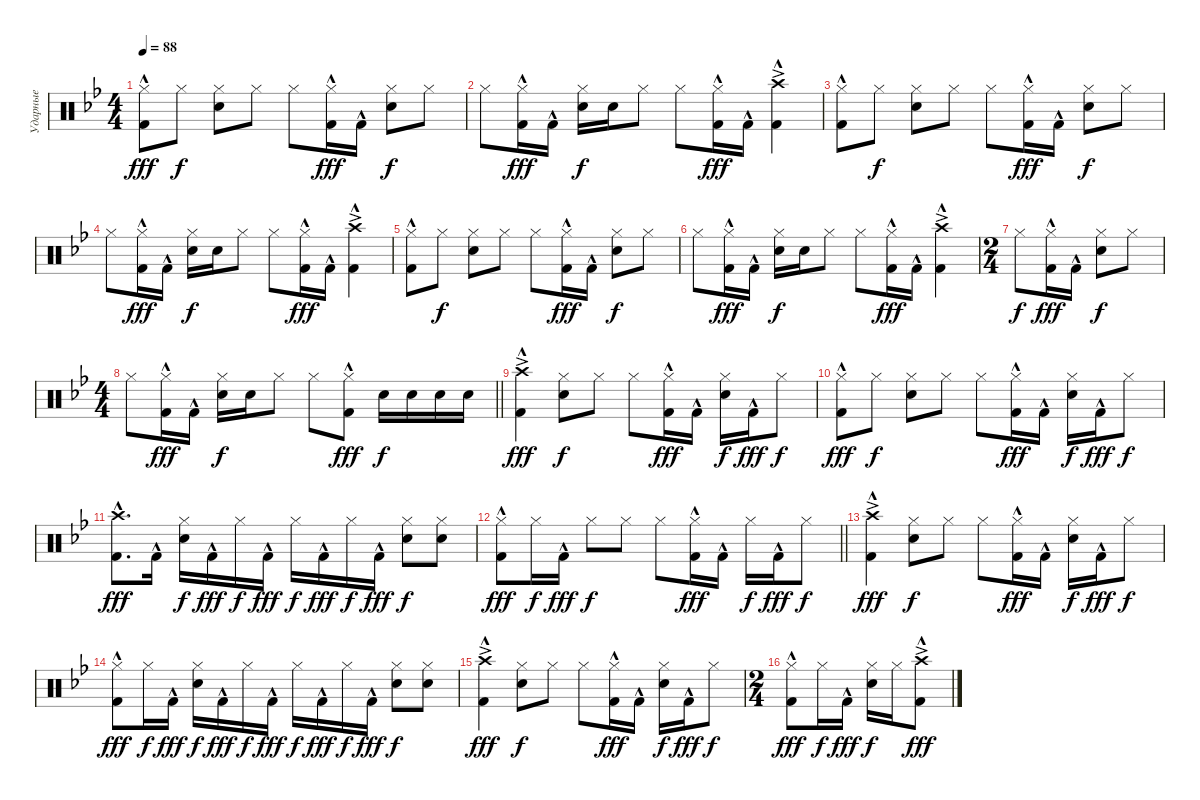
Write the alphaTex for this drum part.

\track ("Ударные" "Ударные") {instrument percussion}
\staff
\articulation defaults
\ts (4 4)
\tempo 88
\clef neutral
\ks bb
("Hi-Hat (closed)" "Kick (hit) 2"{hac}).8{dy fff} "Hi-Hat (closed)".8{dy f} ("Hi-Hat (closed)" "Snare (hit) 2").8 "Hi-Hat (closed)".8 "Hi-Hat (closed)".8 ("Hi-Hat (closed)" "Kick (hit) 2"{hac}).16{dy fff} "Kick (hit) 2"{hac}.16 ("Hi-Hat (closed)" "Snare (hit) 2").8{dy f} "Hi-Hat (closed)".8 |
"Hi-Hat (closed)".8 ("Hi-Hat (closed)" "Kick (hit) 2"{hac}).16{dy fff} "Kick (hit) 2"{hac}.16 ("Hi-Hat (closed)" "Snare (hit) 2").16{dy f} "Snare (hit) 2".16 "Hi-Hat (closed)".8 "Hi-Hat (closed)".8 ("Hi-Hat (closed)" "Kick (hit) 2"{hac}).16{dy fff} "Kick (hit) 2"{hac}.16 ("Crash high (hit)"{ac} "Kick (hit) 2"{hac}).4 |
("Hi-Hat (closed)" "Kick (hit) 2"{hac}).8 "Hi-Hat (closed)".8{dy f} ("Hi-Hat (closed)" "Snare (hit) 2").8 "Hi-Hat (closed)".8 "Hi-Hat (closed)".8 ("Hi-Hat (closed)" "Kick (hit) 2"{hac}).16{dy fff} "Kick (hit) 2"{hac}.16 ("Hi-Hat (closed)" "Snare (hit) 2").8{dy f} "Hi-Hat (closed)".8 |
"Hi-Hat (closed)".8 ("Hi-Hat (closed)" "Kick (hit) 2"{hac}).16{dy fff} "Kick (hit) 2"{hac}.16 ("Hi-Hat (closed)" "Snare (hit) 2").16{dy f} "Snare (hit) 2".16 "Hi-Hat (closed)".8 "Hi-Hat (closed)".8 ("Hi-Hat (closed)" "Kick (hit) 2"{hac}).16{dy fff} "Kick (hit) 2"{hac}.16 ("Crash high (hit)"{ac} "Kick (hit) 2"{hac}).4 |
("Hi-Hat (closed)" "Kick (hit) 2"{hac}).8 "Hi-Hat (closed)".8{dy f} ("Hi-Hat (closed)" "Snare (hit) 2").8 "Hi-Hat (closed)".8 "Hi-Hat (closed)".8 ("Hi-Hat (closed)" "Kick (hit) 2"{hac}).16{dy fff} "Kick (hit) 2"{hac}.16 ("Hi-Hat (closed)" "Snare (hit) 2").8{dy f} "Hi-Hat (closed)".8 |
"Hi-Hat (closed)".8 ("Hi-Hat (closed)" "Kick (hit) 2"{hac}).16{dy fff} "Kick (hit) 2"{hac}.16 ("Hi-Hat (closed)" "Snare (hit) 2").16{dy f} "Snare (hit) 2".16 "Hi-Hat (closed)".8 "Hi-Hat (closed)".8 ("Hi-Hat (closed)" "Kick (hit) 2"{hac}).16{dy fff} "Kick (hit) 2"{hac}.16 ("Crash high (hit)"{ac} "Kick (hit) 2"{hac}).4 |
\ts (2 4)
"Hi-Hat (closed)".8{dy f} ("Hi-Hat (closed)" "Kick (hit) 2"{hac}).16{dy fff} "Kick (hit) 2"{hac}.16 ("Hi-Hat (closed)" "Snare (hit) 2").8{dy f} "Hi-Hat (closed)".8 |
\ts (4 4)
\barLineRight lightlight "Hi-Hat (closed)".8
("Hi-Hat (closed)" "Kick (hit) 2"{hac}).16{dy fff} "Kick (hit) 2"{hac}.16 ("Hi-Hat (closed)" "Snare (hit) 2").16{dy f} "Snare (hit) 2".16 "Hi-Hat (closed)".8 "Hi-Hat (closed)".8 ("Hi-Hat (closed)" "Kick (hit) 2"{hac}).8{dy fff} "Snare (hit) 2".16{dy f} "Snare (hit) 2".16 "Snare (hit) 2".16 "Snare (hit) 2".16 |
("Crash high (hit)"{ac} "Kick (hit) 2"{hac}).4{dy fff} ("Hi-Hat (closed)" "Snare (hit) 2").8{dy f} "Hi-Hat (closed)".8 "Hi-Hat (closed)".8 ("Hi-Hat (closed)" "Kick (hit) 2"{hac}).16{dy fff} "Kick (hit) 2"{hac}.16 ("Hi-Hat (closed)" "Snare (hit) 2").16{dy f} "Kick (hit) 2"{hac}.16{dy fff} "Hi-Hat (closed)".8{dy f} |
("Hi-Hat (closed)" "Kick (hit) 2"{hac}).8{dy fff} "Hi-Hat (closed)".8{dy f} ("Hi-Hat (closed)" "Snare (hit) 2").8 "Hi-Hat (closed)".8 "Hi-Hat (closed)".8 ("Hi-Hat (closed)" "Kick (hit) 2"{hac}).16{dy fff} "Kick (hit) 2"{hac}.16 ("Hi-Hat (closed)" "Snare (hit) 2").16{dy f} "Kick (hit) 2"{hac}.16{dy fff} "Hi-Hat (closed)".8{dy f} |
("Crash high (hit)" "Kick (hit) 2"{hac}).8{d dy fff} "Kick (hit) 2"{hac}.16 ("Hi-Hat (closed)" "Snare (hit) 2").16{dy f} "Kick (hit) 2"{hac}.16{dy fff} "Hi-Hat (closed)".16{dy f} "Kick (hit) 2"{hac}.16{dy fff} "Hi-Hat (closed)".16{dy f} "Kick (hit) 2"{hac}.16{dy fff} "Hi-Hat (closed)".16{dy f} "Kick (hit) 2"{hac}.16{dy fff} ("Hi-Hat (closed)" "Snare (hit) 2").8{dy f} ("Hi-Hat (closed)" "Snare (hit) 2").8 |
\barLineRight lightlight
("Hi-Hat (closed)" "Kick (hit) 2"{hac}).8{dy fff} "Hi-Hat (closed)".16{dy f} "Kick (hit) 2"{hac}.16{dy fff} "Hi-Hat (closed)".8{dy f} "Hi-Hat (closed)".8 "Hi-Hat (closed)".8 ("Hi-Hat (closed)" "Kick (hit) 2"{hac}).16{dy fff} "Kick (hit) 2"{hac}.16 "Hi-Hat (closed)".16{dy f} "Kick (hit) 2"{hac}.16{dy fff} "Hi-Hat (closed)".8{dy f} |
("Crash high (hit)"{ac} "Kick (hit) 2"{hac}).4{dy fff} ("Hi-Hat (closed)" "Snare (hit) 2").8{dy f} "Hi-Hat (closed)".8 "Hi-Hat (closed)".8 ("Hi-Hat (closed)" "Kick (hit) 2"{hac}).16{dy fff} "Kick (hit) 2"{hac}.16 ("Hi-Hat (closed)" "Snare (hit) 2").16{dy f} "Kick (hit) 2"{hac}.16{dy fff} "Hi-Hat (closed)".8{dy f} |
("Hi-Hat (closed)" "Kick (hit) 2"{hac}).8{dy fff} "Hi-Hat (closed)".16{dy f} "Kick (hit) 2"{hac}.16{dy fff} ("Hi-Hat (closed)" "Snare (hit) 2").16{dy f} "Kick (hit) 2"{hac}.16{dy fff} "Hi-Hat (closed)".16{dy f} "Kick (hit) 2"{hac}.16{dy fff} "Hi-Hat (closed)".16{dy f} "Kick (hit) 2"{hac}.16{dy fff} "Hi-Hat (closed)".16{dy f} "Kick (hit) 2"{hac}.16{dy fff} ("Hi-Hat (closed)" "Snare (hit) 2").8{dy f} ("Hi-Hat (closed)" "Snare (hit) 2").8 |
("Crash high (hit)"{ac} "Kick (hit) 2"{hac}).4{dy fff} ("Hi-Hat (closed)" "Snare (hit) 2").8{dy f} "Hi-Hat (closed)".8 "Hi-Hat (closed)".8 ("Hi-Hat (closed)" "Kick (hit) 2"{hac}).16{dy fff} "Kick (hit) 2"{hac}.16 ("Hi-Hat (closed)" "Snare (hit) 2").16{dy f} "Kick (hit) 2"{hac}.16{dy fff} "Hi-Hat (closed)".8{dy f} |
\ts (2 4)
("Hi-Hat (closed)" "Kick (hit) 2"{hac}).8{dy fff} "Hi-Hat (closed)".16{dy f} "Kick (hit) 2"{hac}.16{dy fff} ("Hi-Hat (closed)" "Snare (hit) 2").16{dy f} "Hi-Hat (closed)".16 ("Crash high (hit)"{ac} "Kick (hit) 2"{hac}).8{dy fff}
